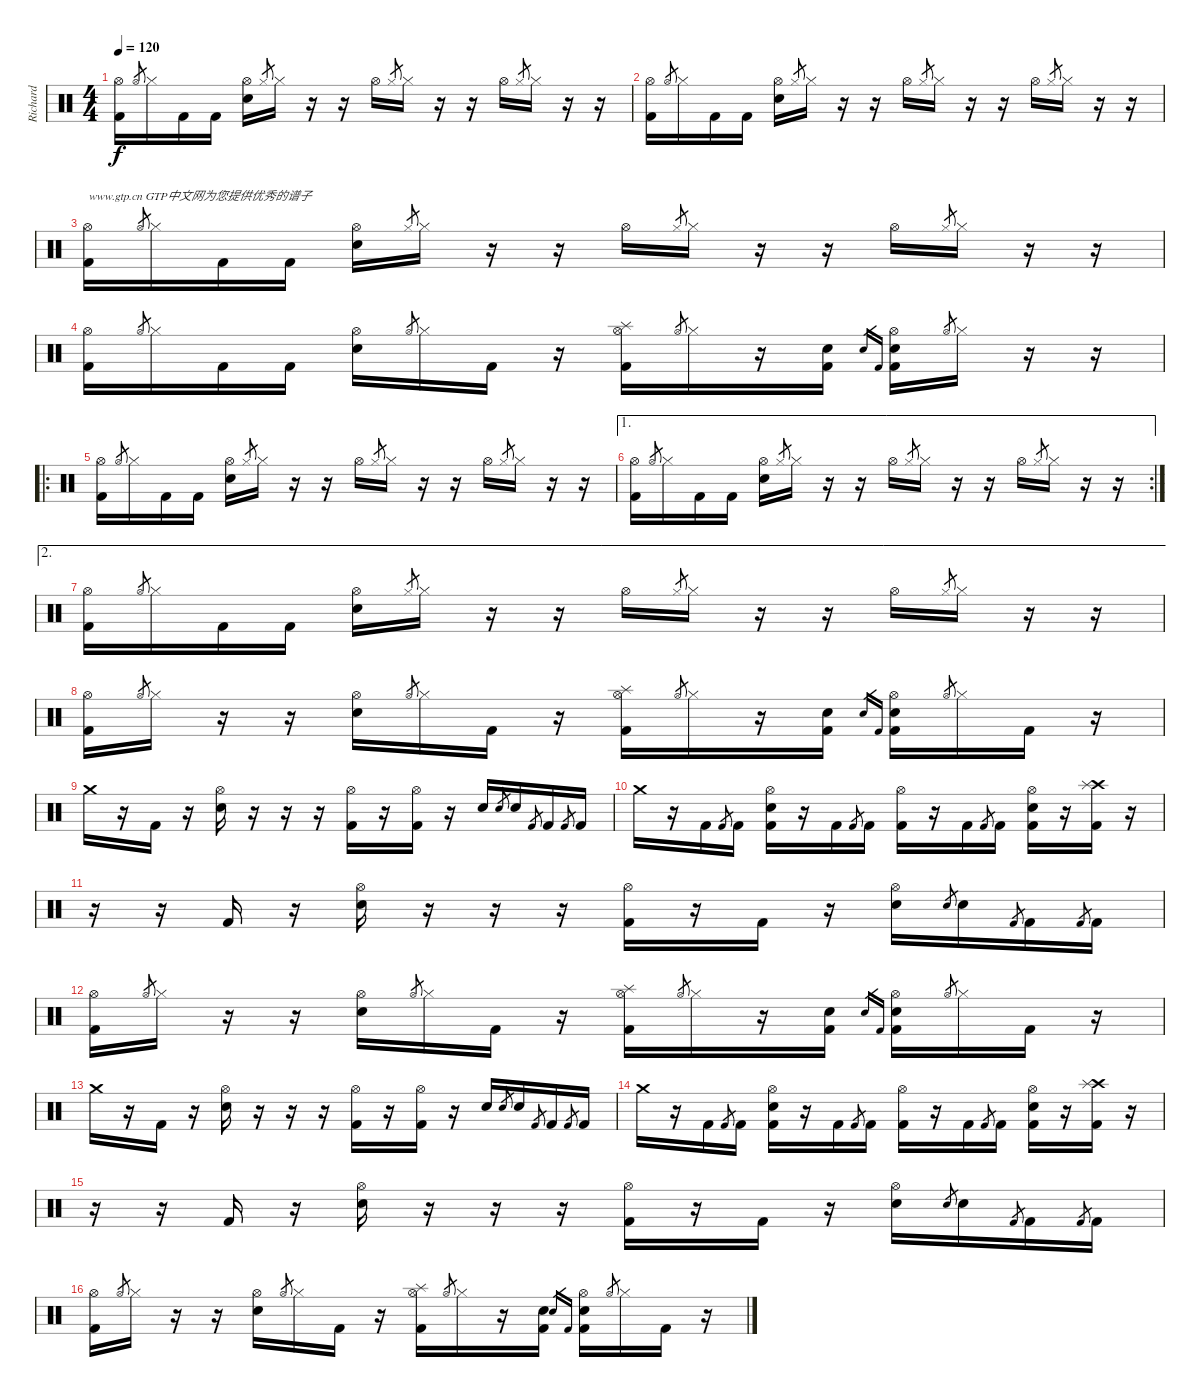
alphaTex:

\track ("Richard " "Richard ") {instrument percussion}
\staff {score}
\articulation defaults
\ts (4 4)
\tempo 120
\clef neutral
\ks c
("Hi-Hat (open)" "Kick (hit) 2").16{dy f} "Hi-Hat (open)".8{gr} "Hi-Hat (closed)".16 "Kick (hit) 2".16 "Kick (hit) 2".16 ("Hi-Hat (open)" "Snare (hit) 2").16 "Hi-Hat (closed)".8{gr} "Hi-Hat (closed)".16 r.16 r.16 "Hi-Hat (open)".16 "Hi-Hat (closed)".8{gr} "Hi-Hat (closed)".16 r.16 r.16 "Hi-Hat (open)".16 "Hi-Hat (closed)".8{gr} "Hi-Hat (closed)".16 r.16 r.16 |
("Hi-Hat (open)" "Kick (hit) 2").16 "Hi-Hat (open)".8{gr} "Hi-Hat (closed)".16 "Kick (hit) 2".16 "Kick (hit) 2".16 ("Hi-Hat (open)" "Snare (hit) 2").16 "Hi-Hat (closed)".8{gr} "Hi-Hat (closed)".16 r.16 r.16 "Hi-Hat (open)".16 "Hi-Hat (closed)".8{gr} "Hi-Hat (closed)".16 r.16 r.16 "Hi-Hat (open)".16 "Hi-Hat (closed)".8{gr} "Hi-Hat (closed)".16 r.16 r.16 |
("Hi-Hat (open)" "Kick (hit) 2").16{txt "www.gtp.cn GTP中文网为您提供优秀的谱子"} "Hi-Hat (open)".8{gr} "Hi-Hat (closed)".16 "Kick (hit) 2".16 "Kick (hit) 2".16 ("Hi-Hat (open)" "Snare (hit) 2").16 "Hi-Hat (closed)".8{gr} "Hi-Hat (closed)".16 r.16 r.16 "Hi-Hat (open)".16 "Hi-Hat (closed)".8{gr} "Hi-Hat (closed)".16 r.16 r.16 "Hi-Hat (open)".16 "Hi-Hat (closed)".8{gr} "Hi-Hat (closed)".16 r.16 r.16 |
("Hi-Hat (open)" "Kick (hit) 2").16 "Hi-Hat (open)".8{gr} "Hi-Hat (closed)".16 "Kick (hit) 2".16 "Kick (hit) 2".16 ("Hi-Hat (open)" "Snare (hit) 2").16 "Hi-Hat (open)".8{gr} "Hi-Hat (closed)".16 "Kick (hit) 2".16 r.16 ("Hi-Hat (open)" "Splash (hit)" "Kick (hit) 2").16 "Hi-Hat (open)".8{gr} "Hi-Hat (closed)".16 r.16 ("Snare (hit) 2" "Kick (hit) 2").16 "Snare (hit) 2".16{gr} "Kick (hit) 2".16{gr} ("Hi-Hat (open)" "Snare (hit) 2" "Kick (hit) 2").16 "Hi-Hat (open)".8{gr} "Hi-Hat (closed)".16 r.16 r.16 |
\ro
("Hi-Hat (open)" "Kick (hit) 2").16 "Hi-Hat (open)".8{gr} "Hi-Hat (closed)".16 "Kick (hit) 2".16 "Kick (hit) 2".16 ("Hi-Hat (open)" "Snare (hit) 2").16 "Hi-Hat (closed)".8{gr} "Hi-Hat (closed)".16 r.16 r.16 "Hi-Hat (open)".16 "Hi-Hat (closed)".8{gr} "Hi-Hat (closed)".16 r.16 r.16 "Hi-Hat (open)".16 "Hi-Hat (closed)".8{gr} "Hi-Hat (closed)".16 r.16 r.16 |
\ae 1
\rc 2
("Hi-Hat (open)" "Kick (hit) 2").16 "Hi-Hat (open)".8{gr} "Hi-Hat (closed)".16 "Kick (hit) 2".16 "Kick (hit) 2".16 ("Hi-Hat (open)" "Snare (hit) 2").16 "Hi-Hat (closed)".8{gr} "Hi-Hat (closed)".16 r.16 r.16 "Hi-Hat (open)".16 "Hi-Hat (closed)".8{gr} "Hi-Hat (closed)".16 r.16 r.16 "Hi-Hat (open)".16 "Hi-Hat (closed)".8{gr} "Hi-Hat (closed)".16 r.16 r.16 |
\ae 2
("Hi-Hat (open)" "Kick (hit) 2").16 "Hi-Hat (open)".8{gr} "Hi-Hat (closed)".16 "Kick (hit) 2".16 "Kick (hit) 2".16 ("Hi-Hat (open)" "Snare (hit) 2").16 "Hi-Hat (closed)".8{gr} "Hi-Hat (closed)".16 r.16 r.16 "Hi-Hat (open)".16 "Hi-Hat (closed)".8{gr} "Hi-Hat (closed)".16 r.16 r.16 "Hi-Hat (open)".16 "Hi-Hat (closed)".8{gr} "Hi-Hat (closed)".16 r.16 r.16 |
("Hi-Hat (open)" "Kick (hit) 2").16 "Hi-Hat (open)".8{gr} "Hi-Hat (closed)".16 r.16 r.16 ("Hi-Hat (open)" "Snare (hit) 2").16 "Hi-Hat (open)".8{gr} "Hi-Hat (closed)".16 "Kick (hit) 2".16 r.16 ("Hi-Hat (open)" "Splash (hit)" "Kick (hit) 2").16 "Hi-Hat (open)".8{gr} "Hi-Hat (closed)".16 r.16 ("Snare (hit) 2" "Kick (hit) 2").16 "Snare (hit) 2".16{gr} "Kick (hit) 2".16{gr} ("Hi-Hat (open)" "Snare (hit) 2" "Kick (hit) 2").16 "Hi-Hat (open)".8{gr} "Hi-Hat (closed)".16 "Kick (hit) 2".16 r.16 |
"Crash medium (hit)".16 r.16 "Kick (hit) 2".16 r.16 ("Hi-Hat (open)" "Snare (hit) 2").16 r.16 r.16 r.16 ("Hi-Hat (open)" "Kick (hit) 2").16 r.16 ("Hi-Hat (open)" "Kick (hit) 2").16 r.16 "Snare (hit) 2".16 "Snare (hit) 2".8{gr} "Snare (hit) 2".16 "Kick (hit) 2".8{gr} "Kick (hit) 2".16 "Kick (hit) 2".8{gr} "Kick (hit) 2".16 |
"Crash medium (hit)".16 r.16 "Kick (hit) 2".16 "Kick (hit) 2".8{gr} "Kick (hit) 2".16 ("Hi-Hat (open)" "Snare (hit) 2" "Kick (hit) 2").16 r.16 "Kick (hit) 2".16 "Kick (hit) 2".8{gr} "Kick (hit) 2".16 ("Hi-Hat (open)" "Kick (hit) 2").16 r.16 "Kick (hit) 2".16 "Kick (hit) 2".8{gr} "Kick (hit) 2".16 ("Hi-Hat (open)" "Snare (hit) 2" "Kick (hit) 2").16 r.16 ("Crash high (hit)" "Splash (hit)" "Kick (hit) 2").16 r.16 |
r.16 r.16 "Kick (hit) 2".16 r.16 ("Hi-Hat (open)" "Snare (hit) 2").16 r.16 r.16 r.16 ("Hi-Hat (open)" "Kick (hit) 2").16 r.16 "Kick (hit) 2".16 r.16 ("Hi-Hat (open)" "Snare (hit) 2").16 "Snare (hit) 2".8{gr} "Snare (hit) 2".16 "Kick (hit) 2".8{gr} "Kick (hit) 2".16 "Kick (hit) 2".8{gr} "Kick (hit) 2".16 |
("Hi-Hat (open)" "Kick (hit) 2").16 "Hi-Hat (open)".8{gr} "Hi-Hat (closed)".16 r.16 r.16 ("Hi-Hat (open)" "Snare (hit) 2").16 "Hi-Hat (open)".8{gr} "Hi-Hat (closed)".16 "Kick (hit) 2".16 r.16 ("Hi-Hat (open)" "Splash (hit)" "Kick (hit) 2").16 "Hi-Hat (open)".8{gr} "Hi-Hat (closed)".16 r.16 ("Snare (hit) 2" "Kick (hit) 2").16 "Snare (hit) 2".16{gr} "Kick (hit) 2".16{gr} ("Hi-Hat (open)" "Snare (hit) 2" "Kick (hit) 2").16 "Hi-Hat (open)".8{gr} "Hi-Hat (closed)".16 "Kick (hit) 2".16 r.16 |
"Crash medium (hit)".16 r.16 "Kick (hit) 2".16 r.16 ("Hi-Hat (open)" "Snare (hit) 2").16 r.16 r.16 r.16 ("Hi-Hat (open)" "Kick (hit) 2").16 r.16 ("Hi-Hat (open)" "Kick (hit) 2").16 r.16 "Snare (hit) 2".16 "Snare (hit) 2".8{gr} "Snare (hit) 2".16 "Kick (hit) 2".8{gr} "Kick (hit) 2".16 "Kick (hit) 2".8{gr} "Kick (hit) 2".16 |
"Crash medium (hit)".16 r.16 "Kick (hit) 2".16 "Kick (hit) 2".8{gr} "Kick (hit) 2".16 ("Hi-Hat (open)" "Snare (hit) 2" "Kick (hit) 2").16 r.16 "Kick (hit) 2".16 "Kick (hit) 2".8{gr} "Kick (hit) 2".16 ("Hi-Hat (open)" "Kick (hit) 2").16 r.16 "Kick (hit) 2".16 "Kick (hit) 2".8{gr} "Kick (hit) 2".16 ("Hi-Hat (open)" "Snare (hit) 2" "Kick (hit) 2").16 r.16 ("Crash high (hit)" "Splash (hit)" "Kick (hit) 2").16 r.16 |
r.16 r.16 "Kick (hit) 2".16 r.16 ("Hi-Hat (open)" "Snare (hit) 2").16 r.16 r.16 r.16 ("Hi-Hat (open)" "Kick (hit) 2").16 r.16 "Kick (hit) 2".16 r.16 ("Hi-Hat (open)" "Snare (hit) 2").16 "Snare (hit) 2".8{gr} "Snare (hit) 2".16 "Kick (hit) 2".8{gr} "Kick (hit) 2".16 "Kick (hit) 2".8{gr} "Kick (hit) 2".16 |
("Hi-Hat (open)" "Kick (hit) 2").16 "Hi-Hat (open)".8{gr} "Hi-Hat (closed)".16 r.16 r.16 ("Hi-Hat (open)" "Snare (hit) 2").16 "Hi-Hat (open)".8{gr} "Hi-Hat (closed)".16 "Kick (hit) 2".16 r.16 ("Hi-Hat (open)" "Splash (hit)" "Kick (hit) 2").16 "Hi-Hat (open)".8{gr} "Hi-Hat (closed)".16 r.16 ("Snare (hit) 2" "Kick (hit) 2").16 "Snare (hit) 2".16{gr} "Kick (hit) 2".16{gr} ("Hi-Hat (open)" "Snare (hit) 2" "Kick (hit) 2").16 "Hi-Hat (open)".8{gr} "Hi-Hat (closed)".16 "Kick (hit) 2".16 r.16
